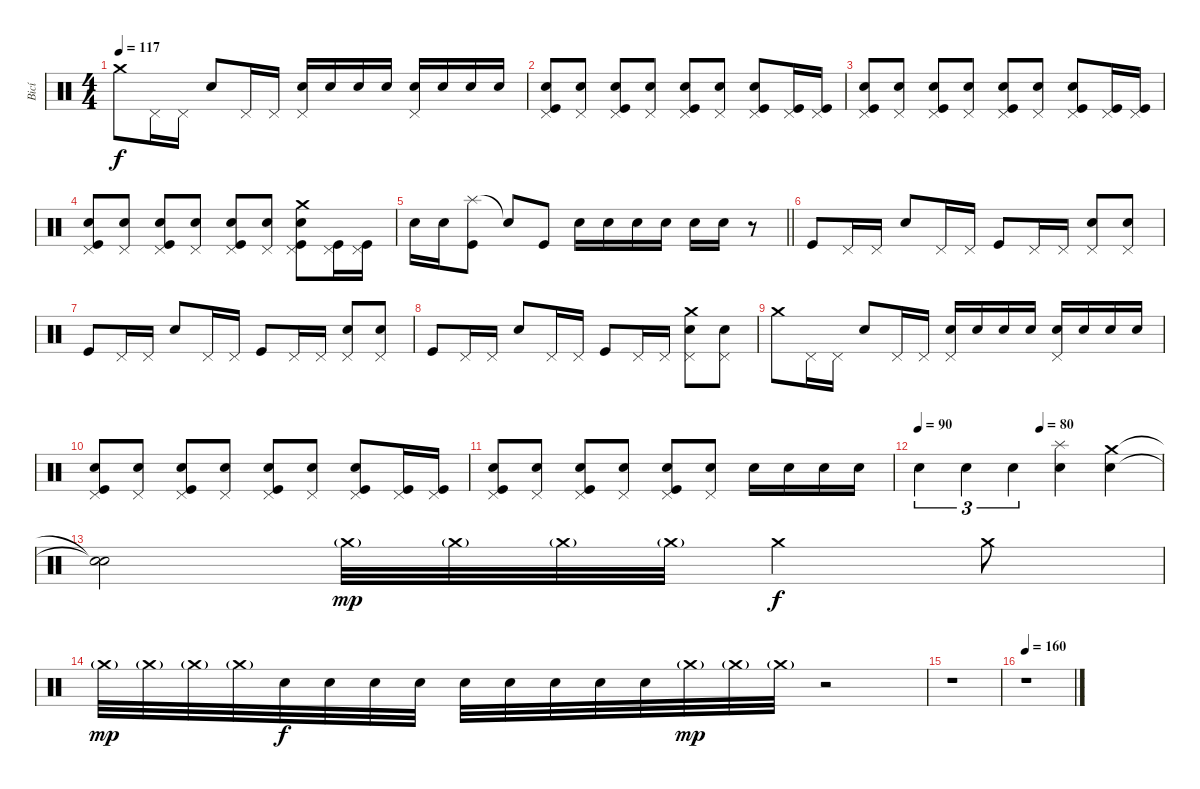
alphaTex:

\track ("Bicí" "Bicí") {instrument percussion}
\staff {score}
\articulation defaults
\ts (4 4)
\tempo 117
\clef neutral
\ks c "Crash medium (hit)".8{dy f} "Pedal Hi-Hat (hit)".16 "Pedal Hi-Hat (hit)".16 "Electric Snare (hit)".8 "Pedal Hi-Hat (hit)".16 "Pedal Hi-Hat (hit)".16
("Electric Snare (hit)" "Pedal Hi-Hat (hit)").16 "Electric Snare (hit)".16 "Electric Snare (hit)".16 "Electric Snare (hit)".16 ("Electric Snare (hit)" "Pedal Hi-Hat (hit)").16 "Electric Snare (hit)".16 "Electric Snare (hit)".16 "Electric Snare (hit)".16 |
("Pedal Hi-Hat (hit)" "Electric Snare (hit)" "Kick (hit)").8 ("Pedal Hi-Hat (hit)" "Snare (hit)").8 ("Pedal Hi-Hat (hit)" "Electric Snare (hit)" "Kick (hit)").8 ("Pedal Hi-Hat (hit)" "Snare (hit)").8 ("Pedal Hi-Hat (hit)" "Electric Snare (hit)" "Kick (hit)").8 ("Pedal Hi-Hat (hit)" "Snare (hit)").8 ("Pedal Hi-Hat (hit)" "Electric Snare (hit)" "Kick (hit)").8 ("Pedal Hi-Hat (hit)" "Kick (hit)").16 ("Pedal Hi-Hat (hit)" "Kick (hit)").16 |
("Pedal Hi-Hat (hit)" "Electric Snare (hit)" "Kick (hit)").8 ("Pedal Hi-Hat (hit)" "Snare (hit)").8 ("Pedal Hi-Hat (hit)" "Electric Snare (hit)" "Kick (hit)").8 ("Pedal Hi-Hat (hit)" "Snare (hit)").8 ("Pedal Hi-Hat (hit)" "Electric Snare (hit)" "Kick (hit)").8 ("Pedal Hi-Hat (hit)" "Snare (hit)").8 ("Pedal Hi-Hat (hit)" "Electric Snare (hit)" "Kick (hit)").8 ("Pedal Hi-Hat (hit)" "Kick (hit)").16 ("Pedal Hi-Hat (hit)" "Kick (hit)").16 |
("Pedal Hi-Hat (hit)" "Electric Snare (hit)" "Kick (hit)").8 ("Pedal Hi-Hat (hit)" "Snare (hit)").8 ("Pedal Hi-Hat (hit)" "Electric Snare (hit)" "Kick (hit)").8 ("Pedal Hi-Hat (hit)" "Snare (hit)").8 ("Pedal Hi-Hat (hit)" "Electric Snare (hit)" "Kick (hit)").8 ("Pedal Hi-Hat (hit)" "Snare (hit)").8 ("Crash medium (hit)" "Pedal Hi-Hat (hit)" "Electric Snare (hit)" "Kick (hit)").8 ("Pedal Hi-Hat (hit)" "Kick (hit)").16 ("Pedal Hi-Hat (hit)" "Kick (hit)").16 |
\barLineRight lightlight "Electric Snare (hit)".16 "Electric Snare (hit)".16
("Splash (hit)" "Kick (hit)").8 "Snare (hit)"{t}.8 "Kick (hit)".8 "Electric Snare (hit)".16 "Electric Snare (hit)".16 "Electric Snare (hit)".16 "Electric Snare (hit)".16 "Electric Snare (hit)".16 "Electric Snare (hit)".16 r.8 |
"Kick (hit)".8 "Pedal Hi-Hat (hit)".16 "Pedal Hi-Hat (hit)".16 "Electric Snare (hit)".8 "Pedal Hi-Hat (hit)".16 "Pedal Hi-Hat (hit)".16 "Kick (hit)".8 "Pedal Hi-Hat (hit)".16 "Pedal Hi-Hat (hit)".16 ("Pedal Hi-Hat (hit)" "Electric Snare (hit)").8 ("Pedal Hi-Hat (hit)" "Electric Snare (hit)").8 |
"Kick (hit)".8 "Pedal Hi-Hat (hit)".16 "Pedal Hi-Hat (hit)".16 "Electric Snare (hit)".8 "Pedal Hi-Hat (hit)".16 "Pedal Hi-Hat (hit)".16 "Kick (hit)".8 "Pedal Hi-Hat (hit)".16 "Pedal Hi-Hat (hit)".16 ("Pedal Hi-Hat (hit)" "Electric Snare (hit)").8 ("Pedal Hi-Hat (hit)" "Electric Snare (hit)").8 |
"Kick (hit)".8 "Pedal Hi-Hat (hit)".16 "Pedal Hi-Hat (hit)".16 "Electric Snare (hit)".8 "Pedal Hi-Hat (hit)".16 "Pedal Hi-Hat (hit)".16 "Kick (hit)".8 "Pedal Hi-Hat (hit)".16 "Pedal Hi-Hat (hit)".16 ("Crash medium (hit)" "Pedal Hi-Hat (hit)" "Electric Snare (hit)").8 ("Pedal Hi-Hat (hit)" "Electric Snare (hit)").8 |
"Crash medium (hit)".8 "Pedal Hi-Hat (hit)".16 "Pedal Hi-Hat (hit)".16 "Electric Snare (hit)".8 "Pedal Hi-Hat (hit)".16 "Pedal Hi-Hat (hit)".16 ("Electric Snare (hit)" "Pedal Hi-Hat (hit)").16 "Electric Snare (hit)".16 "Electric Snare (hit)".16 "Electric Snare (hit)".16 ("Electric Snare (hit)" "Pedal Hi-Hat (hit)").16 "Electric Snare (hit)".16 "Electric Snare (hit)".16 "Electric Snare (hit)".16 |
("Pedal Hi-Hat (hit)" "Electric Snare (hit)" "Kick (hit)").8 ("Pedal Hi-Hat (hit)" "Snare (hit)").8 ("Pedal Hi-Hat (hit)" "Electric Snare (hit)" "Kick (hit)").8 ("Pedal Hi-Hat (hit)" "Snare (hit)").8 ("Pedal Hi-Hat (hit)" "Electric Snare (hit)" "Kick (hit)").8 ("Pedal Hi-Hat (hit)" "Snare (hit)").8 ("Pedal Hi-Hat (hit)" "Electric Snare (hit)" "Kick (hit)").8 ("Pedal Hi-Hat (hit)" "Kick (hit)").16 ("Pedal Hi-Hat (hit)" "Kick (hit)").16 |
("Pedal Hi-Hat (hit)" "Electric Snare (hit)" "Kick (hit)").8 ("Pedal Hi-Hat (hit)" "Snare (hit)").8 ("Pedal Hi-Hat (hit)" "Electric Snare (hit)" "Kick (hit)").8 ("Pedal Hi-Hat (hit)" "Snare (hit)").8 ("Pedal Hi-Hat (hit)" "Electric Snare (hit)" "Kick (hit)").8 ("Pedal Hi-Hat (hit)" "Snare (hit)").8 "Electric Snare (hit)".16 "Electric Snare (hit)".16 "Electric Snare (hit)".16 "Electric Snare (hit)".16 |
\tempo 90
\tempo (80 0.5)
"Electric Snare (hit)".4{tu (3 2)} "Electric Snare (hit)".4{tu (3 2)} "Electric Snare (hit)".4{tu (3 2)} ("Splash (hit)" "Electric Snare (hit)").4 ("Crash medium (hit)" "Electric Snare (hit)").4 |
("Snare (hit)"{t} "Snare (hit)"{t}).2 "Crash medium (hit)"{g}.32{dy mp} "Crash medium (hit)"{g}.32 "Crash medium (hit)"{g}.32 "Crash medium (hit)"{g}.32 "Crash medium (hit)".4{dy f} "Crash medium (hit)".8 |
"Crash medium (hit)"{g}.32{dy mp} "Crash medium (hit)"{g}.32 "Crash medium (hit)"{g}.32 "Crash medium (hit)"{g}.32 "Snare (hit)".32{dy f} "Snare (hit)".32 "Snare (hit)".32 "Snare (hit)".32 "Snare (hit)".32 "Snare (hit)".32 "Snare (hit)".32 "Snare (hit)".32 "Snare (hit)".32 "Crash medium (hit)"{g}.32{dy mp} "Crash medium (hit)"{g}.32 "Crash medium (hit)"{g}.32 r.2 |
r.1 |
\tempo 160
r.1
